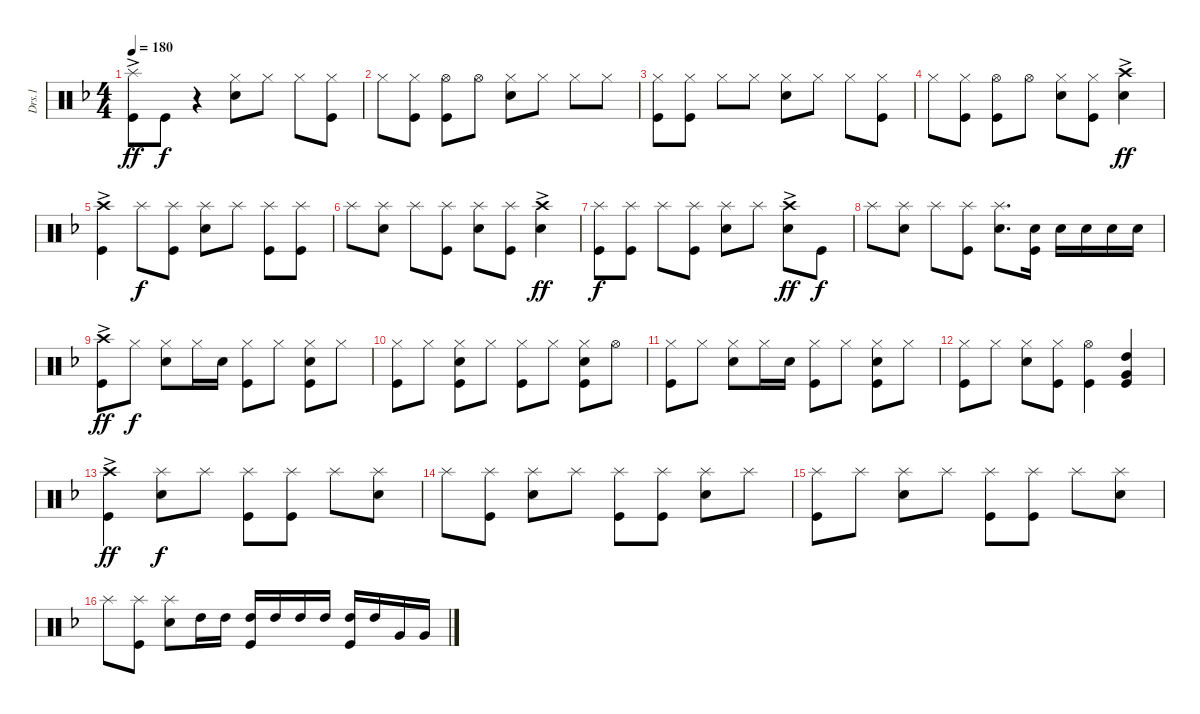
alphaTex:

\track ("Drs.1" "Drs.1") {instrument percussion}
\staff {score}
\articulation defaults
\ts (4 4)
\tempo 180
\clef neutral
\ks f
("Splash (hit)"{ac} "Kick (hit)").8{dy ff} "Kick (hit)".8{dy f} r.4 ("Hi-Hat (closed)" "Snare (hit) 2").8 "Hi-Hat (closed)".8 "Hi-Hat (closed)".8 ("Hi-Hat (closed)" "Kick (hit)").8 |
"Hi-Hat (closed)".8 ("Hi-Hat (closed)" "Kick (hit)").8 ("Hi-Hat (open)" "Kick (hit)").8 "Hi-Hat (open)".8 ("Hi-Hat (closed)" "Snare (hit) 2").8 "Hi-Hat (closed)".8 "Hi-Hat (closed)".8 "Hi-Hat (closed)".8 |
("Hi-Hat (closed)" "Kick (hit)").8 ("Hi-Hat (closed)" "Kick (hit)").8 "Hi-Hat (closed)".8 "Hi-Hat (closed)".8 ("Hi-Hat (closed)" "Snare (hit) 2").8 "Hi-Hat (closed)".8 "Hi-Hat (closed)".8 ("Hi-Hat (closed)" "Kick (hit)").8 |
"Hi-Hat (closed)".8 ("Hi-Hat (closed)" "Kick (hit)").8 ("Hi-Hat (open)" "Kick (hit)").8 "Hi-Hat (open)".8 ("Hi-Hat (closed)" "Snare (hit) 2").8 ("Hi-Hat (closed)" "Kick (hit)").8 ("Crash high (hit)"{ac} "Snare (hit) 2").4{dy ff} |
("Crash high (hit)"{ac} "Kick (hit)").4 "Splash (hit)".8{dy f} ("Splash (hit)" "Kick (hit)").8 ("Splash (hit)" "Snare (hit) 2").8 "Splash (hit)".8 ("Splash (hit)" "Kick (hit)").8 ("Splash (hit)" "Kick (hit)").8 |
"Splash (hit)".8 ("Splash (hit)" "Snare (hit) 2").8 "Splash (hit)".8 ("Splash (hit)" "Kick (hit)").8 ("Splash (hit)" "Snare (hit) 2").8 ("Splash (hit)" "Kick (hit)").8 ("Crash high (hit)"{ac} "Snare (hit) 2").4{dy ff} |
("Splash (hit)" "Kick (hit)").8{dy f} ("Splash (hit)" "Kick (hit)").8 "Splash (hit)".8 ("Splash (hit)" "Kick (hit)").8 ("Splash (hit)" "Snare (hit) 2").8 "Splash (hit)".8 ("Crash high (hit)"{ac} "Snare (hit) 2").8{dy ff} "Kick (hit)".8{dy f} |
"Splash (hit)".8 ("Splash (hit)" "Snare (hit) 2").8 "Splash (hit)".8 ("Splash (hit)" "Kick (hit)").8 ("Splash (hit)" "Snare (hit) 2").8{d} ("Snare (hit) 2" "Kick (hit)").16 "Snare (hit) 2".16 "Snare (hit) 2".16 "Snare (hit) 2".16 "Snare (hit) 2".16 |
("Crash high (hit)"{ac} "Kick (hit)").8{dy ff} "Hi-Hat (closed)".8{dy f} ("Hi-Hat (closed)" "Snare (hit) 2").8 "Hi-Hat (closed)".16 "Snare (hit) 2".16 ("Hi-Hat (closed)" "Kick (hit)").8 "Hi-Hat (closed)".8 ("Hi-Hat (closed)" "Snare (hit) 2" "Kick (hit)").8 "Hi-Hat (closed)".8 |
("Hi-Hat (closed)" "Kick (hit)").8 "Hi-Hat (closed)".8 ("Hi-Hat (closed)" "Snare (hit) 2" "Kick (hit)").8 "Hi-Hat (closed)".8 ("Hi-Hat (closed)" "Kick (hit)").8 "Hi-Hat (closed)".8 ("Hi-Hat (closed)" "Snare (hit) 2" "Kick (hit)").8 "Hi-Hat (open)".8 |
("Hi-Hat (closed)" "Kick (hit)").8 "Hi-Hat (closed)".8 ("Hi-Hat (closed)" "Snare (hit) 2").8 "Hi-Hat (closed)".16 "Snare (hit) 2".16 ("Hi-Hat (closed)" "Kick (hit)").8 "Hi-Hat (closed)".8 ("Hi-Hat (closed)" "Snare (hit) 2" "Kick (hit)").8 "Hi-Hat (closed)".8 |
("Hi-Hat (closed)" "Kick (hit)").8 "Hi-Hat (closed)".8 ("Hi-Hat (closed)" "Snare (hit) 2").8 ("Hi-Hat (closed)" "Kick (hit)").8 ("Hi-Hat (open)" "Kick (hit)").4 ("High Tom (hit)" "Very Low Tom (hit)" "Kick (hit)").4 |
("Crash high (hit)"{ac} "Kick (hit)").4{dy ff} ("Splash (hit)" "Snare (hit) 2").8{dy f} "Splash (hit)".8 ("Splash (hit)" "Kick (hit)").8 ("Splash (hit)" "Kick (hit)").8 "Splash (hit)".8 ("Splash (hit)" "Snare (hit) 2").8 |
"Splash (hit)".8 ("Splash (hit)" "Kick (hit)").8 ("Splash (hit)" "Snare (hit) 2").8 "Splash (hit)".8 ("Splash (hit)" "Kick (hit)").8 ("Splash (hit)" "Kick (hit)").8 ("Splash (hit)" "Snare (hit) 2").8 "Splash (hit)".8 |
("Splash (hit)" "Kick (hit)").8 "Splash (hit)".8 ("Splash (hit)" "Snare (hit) 2").8 "Splash (hit)".8 ("Splash (hit)" "Kick (hit)").8 ("Splash (hit)" "Kick (hit)").8 "Splash (hit)".8 ("Splash (hit)" "Snare (hit) 2").8 |
"Splash (hit)".8 ("Splash (hit)" "Kick (hit)").8 ("Splash (hit)" "Snare (hit) 2").8 "High Tom (hit)".16 "High Tom (hit)".16 ("High Tom (hit)" "Kick (hit)").16 "High Tom (hit)".16 "High Tom (hit)".16 "High Tom (hit)".16 ("High Tom (hit)" "Kick (hit)").16 "High Tom (hit)".16 "Very Low Tom (hit)".16 "Very Low Tom (hit)".16
